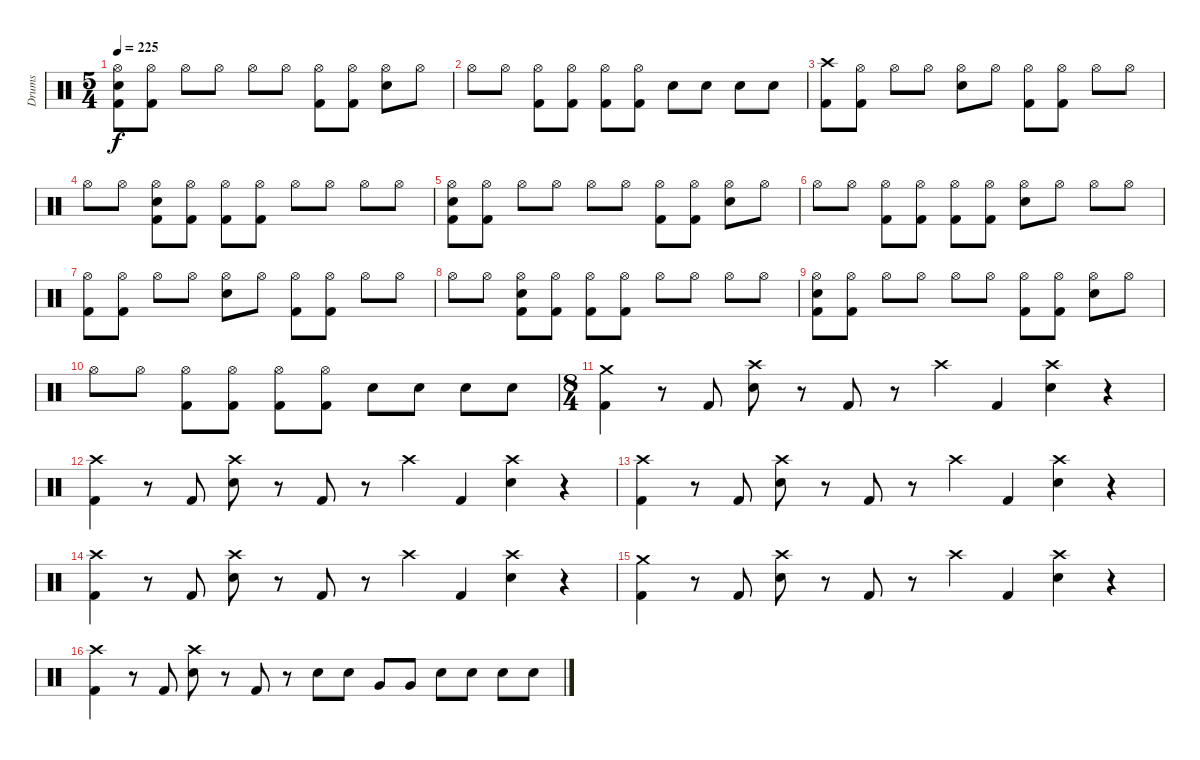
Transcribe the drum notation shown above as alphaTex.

\track ("Drums" "Drums") {instrument percussion}
\staff {score}
\articulation defaults
\ts (5 4)
\tempo 225
\clef neutral
\ks c
("Hi-Hat (open)" "Electric Snare (hit)" "Kick (hit) 2").8{dy f} ("Hi-Hat (open)" "Kick (hit) 2").8 "Hi-Hat (open)".8 "Hi-Hat (open)".8 "Hi-Hat (open)".8 "Hi-Hat (open)".8 ("Hi-Hat (open)" "Kick (hit) 2").8 ("Hi-Hat (open)" "Kick (hit) 2").8 ("Hi-Hat (open)" "Electric Snare (hit)").8 "Hi-Hat (open)".8 |
"Hi-Hat (open)".8 "Hi-Hat (open)".8 ("Hi-Hat (open)" "Kick (hit) 2").8 ("Hi-Hat (open)" "Kick (hit) 2").8 ("Hi-Hat (open)" "Kick (hit) 2").8 ("Hi-Hat (open)" "Kick (hit) 2").8 "Electric Snare (hit)".8 "Electric Snare (hit)".8 "Electric Snare (hit)".8 "Electric Snare (hit)".8 |
("Crash high (hit)" "Kick (hit) 2").8 ("Hi-Hat (open)" "Kick (hit) 2").8 "Hi-Hat (open)".8 "Hi-Hat (open)".8 ("Hi-Hat (open)" "Electric Snare (hit)").8 "Hi-Hat (open)".8 ("Hi-Hat (open)" "Kick (hit) 2").8 ("Hi-Hat (open)" "Kick (hit) 2").8 "Hi-Hat (open)".8 "Hi-Hat (open)".8 |
"Hi-Hat (open)".8 "Hi-Hat (open)".8 ("Hi-Hat (open)" "Electric Snare (hit)" "Kick (hit) 2").8 ("Hi-Hat (open)" "Kick (hit) 2").8 ("Hi-Hat (open)" "Kick (hit) 2").8 ("Hi-Hat (open)" "Kick (hit) 2").8 "Hi-Hat (open)".8 "Hi-Hat (open)".8 "Hi-Hat (open)".8 "Hi-Hat (open)".8 |
("Hi-Hat (open)" "Electric Snare (hit)" "Kick (hit) 2").8 ("Hi-Hat (open)" "Kick (hit) 2").8 "Hi-Hat (open)".8 "Hi-Hat (open)".8 "Hi-Hat (open)".8 "Hi-Hat (open)".8 ("Hi-Hat (open)" "Kick (hit) 2").8 ("Hi-Hat (open)" "Kick (hit) 2").8 ("Hi-Hat (open)" "Electric Snare (hit)").8 "Hi-Hat (open)".8 |
"Hi-Hat (open)".8 "Hi-Hat (open)".8 ("Hi-Hat (open)" "Kick (hit) 2").8 ("Hi-Hat (open)" "Kick (hit) 2").8 ("Hi-Hat (open)" "Kick (hit) 2").8 ("Hi-Hat (open)" "Kick (hit) 2").8 ("Hi-Hat (open)" "Electric Snare (hit)").8 "Hi-Hat (open)".8 "Hi-Hat (open)".8 "Hi-Hat (open)".8 |
("Hi-Hat (open)" "Kick (hit) 2").8 ("Hi-Hat (open)" "Kick (hit) 2").8 "Hi-Hat (open)".8 "Hi-Hat (open)".8 ("Hi-Hat (open)" "Electric Snare (hit)").8 "Hi-Hat (open)".8 ("Hi-Hat (open)" "Kick (hit) 2").8 ("Hi-Hat (open)" "Kick (hit) 2").8 "Hi-Hat (open)".8 "Hi-Hat (open)".8 |
"Hi-Hat (open)".8 "Hi-Hat (open)".8 ("Hi-Hat (open)" "Electric Snare (hit)" "Kick (hit) 2").8 ("Hi-Hat (open)" "Kick (hit) 2").8 ("Hi-Hat (open)" "Kick (hit) 2").8 ("Hi-Hat (open)" "Kick (hit) 2").8 "Hi-Hat (open)".8 "Hi-Hat (open)".8 "Hi-Hat (open)".8 "Hi-Hat (open)".8 |
("Hi-Hat (open)" "Electric Snare (hit)" "Kick (hit) 2").8 ("Hi-Hat (open)" "Kick (hit) 2").8 "Hi-Hat (open)".8 "Hi-Hat (open)".8 "Hi-Hat (open)".8 "Hi-Hat (open)".8 ("Hi-Hat (open)" "Kick (hit) 2").8 ("Hi-Hat (open)" "Kick (hit) 2").8 ("Hi-Hat (open)" "Electric Snare (hit)").8 "Hi-Hat (open)".8 |
"Hi-Hat (open)".8 "Hi-Hat (open)".8 ("Hi-Hat (open)" "Kick (hit) 2").8 ("Hi-Hat (open)" "Kick (hit) 2").8 ("Hi-Hat (open)" "Kick (hit) 2").8 ("Hi-Hat (open)" "Kick (hit) 2").8 "Electric Snare (hit)".8 "Electric Snare (hit)".8 "Electric Snare (hit)".8 "Electric Snare (hit)".8 |
\ts (8 4)
("Crash medium (hit)" "Kick (hit) 2").4 r.8 "Kick (hit) 2".8 ("Crash high (hit)" "Electric Snare (hit)").8 r.8 "Kick (hit) 2".8 r.8 "Crash high (hit)".4 "Kick (hit) 2".4 ("Crash high (hit)" "Electric Snare (hit)").4 r.4 |
("Crash high (hit)" "Kick (hit) 2").4 r.8 "Kick (hit) 2".8 ("Crash high (hit)" "Electric Snare (hit)").8 r.8 "Kick (hit) 2".8 r.8 "Crash high (hit)".4 "Kick (hit) 2".4 ("Crash high (hit)" "Electric Snare (hit)").4 r.4 |
("Crash high (hit)" "Kick (hit) 2").4 r.8 "Kick (hit) 2".8 ("Crash high (hit)" "Electric Snare (hit)").8 r.8 "Kick (hit) 2".8 r.8 "Crash high (hit)".4 "Kick (hit) 2".4 ("Crash high (hit)" "Electric Snare (hit)").4 r.4 |
("Crash high (hit)" "Kick (hit) 2").4 r.8 "Kick (hit) 2".8 ("Crash high (hit)" "Electric Snare (hit)").8 r.8 "Kick (hit) 2".8 r.8 "Crash high (hit)".4 "Kick (hit) 2".4 ("Crash high (hit)" "Electric Snare (hit)").4 r.4 |
("Crash medium (hit)" "Kick (hit) 2").4 r.8 "Kick (hit) 2".8 ("Crash high (hit)" "Electric Snare (hit)").8 r.8 "Kick (hit) 2".8 r.8 "Crash high (hit)".4 "Kick (hit) 2".4 ("Crash high (hit)" "Electric Snare (hit)").4 r.4 |
("Crash high (hit)" "Kick (hit) 2").4 r.8 "Kick (hit) 2".8 ("Crash high (hit)" "Electric Snare (hit)").8 r.8 "Kick (hit) 2".8 r.8 "Electric Snare (hit)".8 "Electric Snare (hit)".8 "Very Low Tom (hit)".8 "Very Low Tom (hit)".8 "Electric Snare (hit)".8 "Electric Snare (hit)".8 "Electric Snare (hit)".8 "Electric Snare (hit)".8
